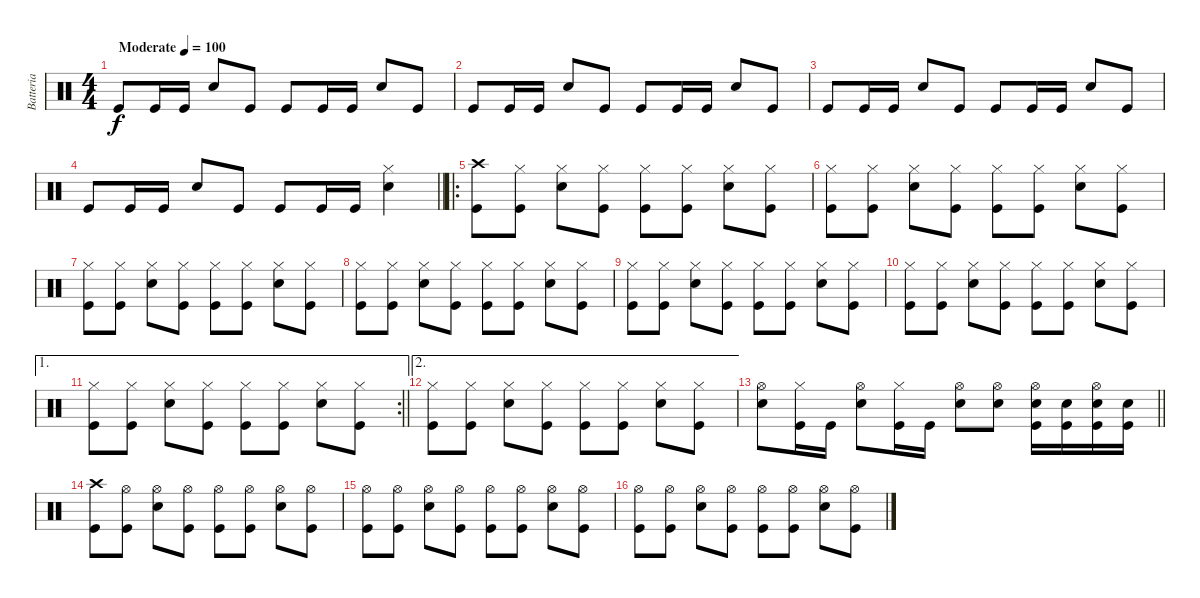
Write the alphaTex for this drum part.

\track ("Batteria" "Batteria") {instrument percussion}
\staff {score}
\articulation defaults
\ts (4 4)
\tempo (100 "Moderate")
\clef neutral
\ks c "Kick (hit)".8{dy f} "Kick (hit)".16 "Kick (hit)".16 "Snare (hit) 2".8 "Kick (hit)".8 "Kick (hit)".8 "Kick (hit)".16 "Kick (hit)".16 "Snare (hit) 2".8 "Kick (hit)".8
|
"Kick (hit)".8 "Kick (hit)".16 "Kick (hit)".16 "Snare (hit) 2".8 "Kick (hit)".8 "Kick (hit)".8 "Kick (hit)".16 "Kick (hit)".16 "Snare (hit) 2".8 "Kick (hit)".8 |
"Kick (hit)".8 "Kick (hit)".16 "Kick (hit)".16 "Snare (hit) 2".8 "Kick (hit)".8 "Kick (hit)".8 "Kick (hit)".16 "Kick (hit)".16 "Snare (hit) 2".8 "Kick (hit)".8 |
\barLineRight lightlight "Kick (hit)".8 "Kick (hit)".16 "Kick (hit)".16 "Snare (hit) 2".8 "Kick (hit)".8 "Kick (hit)".8 "Kick (hit)".16 "Kick (hit)".16
("Snare (hit) 2" "Hi-Hat (closed)").4 |
\ro
("Kick (hit)" "Crash high (hit)").8 ("Kick (hit)" "Hi-Hat (closed)").8 ("Snare (hit) 2" "Hi-Hat (closed)").8 ("Kick (hit)" "Hi-Hat (closed)").8 ("Kick (hit)" "Hi-Hat (closed)").8 ("Kick (hit)" "Hi-Hat (closed)").8 ("Snare (hit) 2" "Hi-Hat (closed)").8 ("Kick (hit)" "Hi-Hat (closed)").8 |
("Kick (hit)" "Hi-Hat (closed)").8 ("Kick (hit)" "Hi-Hat (closed)").8 ("Snare (hit) 2" "Hi-Hat (closed)").8 ("Kick (hit)" "Hi-Hat (closed)").8 ("Kick (hit)" "Hi-Hat (closed)").8 ("Kick (hit)" "Hi-Hat (closed)").8 ("Snare (hit) 2" "Hi-Hat (closed)").8 ("Kick (hit)" "Hi-Hat (closed)").8 |
("Kick (hit)" "Hi-Hat (closed)").8 ("Kick (hit)" "Hi-Hat (closed)").8 ("Snare (hit) 2" "Hi-Hat (closed)").8 ("Kick (hit)" "Hi-Hat (closed)").8 ("Kick (hit)" "Hi-Hat (closed)").8 ("Kick (hit)" "Hi-Hat (closed)").8 ("Snare (hit) 2" "Hi-Hat (closed)").8 ("Kick (hit)" "Hi-Hat (closed)").8 |
("Kick (hit)" "Hi-Hat (closed)").8 ("Kick (hit)" "Hi-Hat (closed)").8 ("Snare (hit) 2" "Hi-Hat (closed)").8 ("Kick (hit)" "Hi-Hat (closed)").8 ("Kick (hit)" "Hi-Hat (closed)").8 ("Kick (hit)" "Hi-Hat (closed)").8 ("Snare (hit) 2" "Hi-Hat (closed)").8 ("Kick (hit)" "Hi-Hat (closed)").8 |
("Kick (hit)" "Hi-Hat (closed)").8 ("Kick (hit)" "Hi-Hat (closed)").8 ("Snare (hit) 2" "Hi-Hat (closed)").8 ("Kick (hit)" "Hi-Hat (closed)").8 ("Kick (hit)" "Hi-Hat (closed)").8 ("Kick (hit)" "Hi-Hat (closed)").8 ("Snare (hit) 2" "Hi-Hat (closed)").8 ("Kick (hit)" "Hi-Hat (closed)").8 |
("Kick (hit)" "Hi-Hat (closed)").8 ("Kick (hit)" "Hi-Hat (closed)").8 ("Snare (hit) 2" "Hi-Hat (closed)").8 ("Kick (hit)" "Hi-Hat (closed)").8 ("Kick (hit)" "Hi-Hat (closed)").8 ("Kick (hit)" "Hi-Hat (closed)").8 ("Snare (hit) 2" "Hi-Hat (closed)").8 ("Kick (hit)" "Hi-Hat (closed)").8 |
\ae 1
\rc 2
\barLineRight lightlight
("Kick (hit)" "Hi-Hat (closed)").8 ("Kick (hit)" "Hi-Hat (closed)").8 ("Snare (hit) 2" "Hi-Hat (closed)").8 ("Kick (hit)" "Hi-Hat (closed)").8 ("Kick (hit)" "Hi-Hat (closed)").8 ("Kick (hit)" "Hi-Hat (closed)").8 ("Snare (hit) 2" "Hi-Hat (closed)").8 ("Kick (hit)" "Hi-Hat (closed)").8 |
\ae 2
("Kick (hit)" "Hi-Hat (closed)").8 ("Kick (hit)" "Hi-Hat (closed)").8 ("Snare (hit) 2" "Hi-Hat (closed)").8 ("Kick (hit)" "Hi-Hat (closed)").8 ("Kick (hit)" "Hi-Hat (closed)").8 ("Kick (hit)" "Hi-Hat (closed)").8 ("Snare (hit) 2" "Hi-Hat (closed)").8 ("Kick (hit)" "Hi-Hat (closed)").8 |
\barLineRight lightlight
("Snare (hit) 2" "Hi-Hat (open)").8 ("Kick (hit)" "Hi-Hat (closed)").16 "Kick (hit)".16 ("Snare (hit) 2" "Hi-Hat (open)").8 ("Kick (hit)" "Hi-Hat (closed)").16 "Kick (hit)".16 ("Snare (hit) 2" "Hi-Hat (open)").8 ("Snare (hit) 2" "Hi-Hat (open)").8 ("Kick (hit)" "Hi-Hat (open)" "Snare (hit) 2").16 ("Kick (hit)" "Snare (hit) 2").16 ("Kick (hit)" "Hi-Hat (open)" "Snare (hit) 2").16 ("Kick (hit)" "Snare (hit) 2").16 |
("Kick (hit)" "Crash high (hit)").8 ("Kick (hit)" "Hi-Hat (open)").8 ("Snare (hit) 2" "Hi-Hat (open)").8 ("Kick (hit)" "Hi-Hat (open)").8 ("Kick (hit)" "Hi-Hat (open)").8 ("Kick (hit)" "Hi-Hat (open)").8 ("Snare (hit) 2" "Hi-Hat (open)").8 ("Kick (hit)" "Hi-Hat (open)").8 |
("Kick (hit)" "Hi-Hat (open)").8 ("Kick (hit)" "Hi-Hat (open)").8 ("Snare (hit) 2" "Hi-Hat (open)").8 ("Kick (hit)" "Hi-Hat (open)").8 ("Kick (hit)" "Hi-Hat (open)").8 ("Kick (hit)" "Hi-Hat (open)").8 ("Snare (hit) 2" "Hi-Hat (open)").8 ("Kick (hit)" "Hi-Hat (open)").8 |
("Kick (hit)" "Hi-Hat (open)").8 ("Kick (hit)" "Hi-Hat (open)").8 ("Snare (hit) 2" "Hi-Hat (open)").8 ("Kick (hit)" "Hi-Hat (open)").8 ("Kick (hit)" "Hi-Hat (open)").8 ("Kick (hit)" "Hi-Hat (open)").8 ("Snare (hit) 2" "Hi-Hat (open)").8 ("Kick (hit)" "Hi-Hat (open)").8
